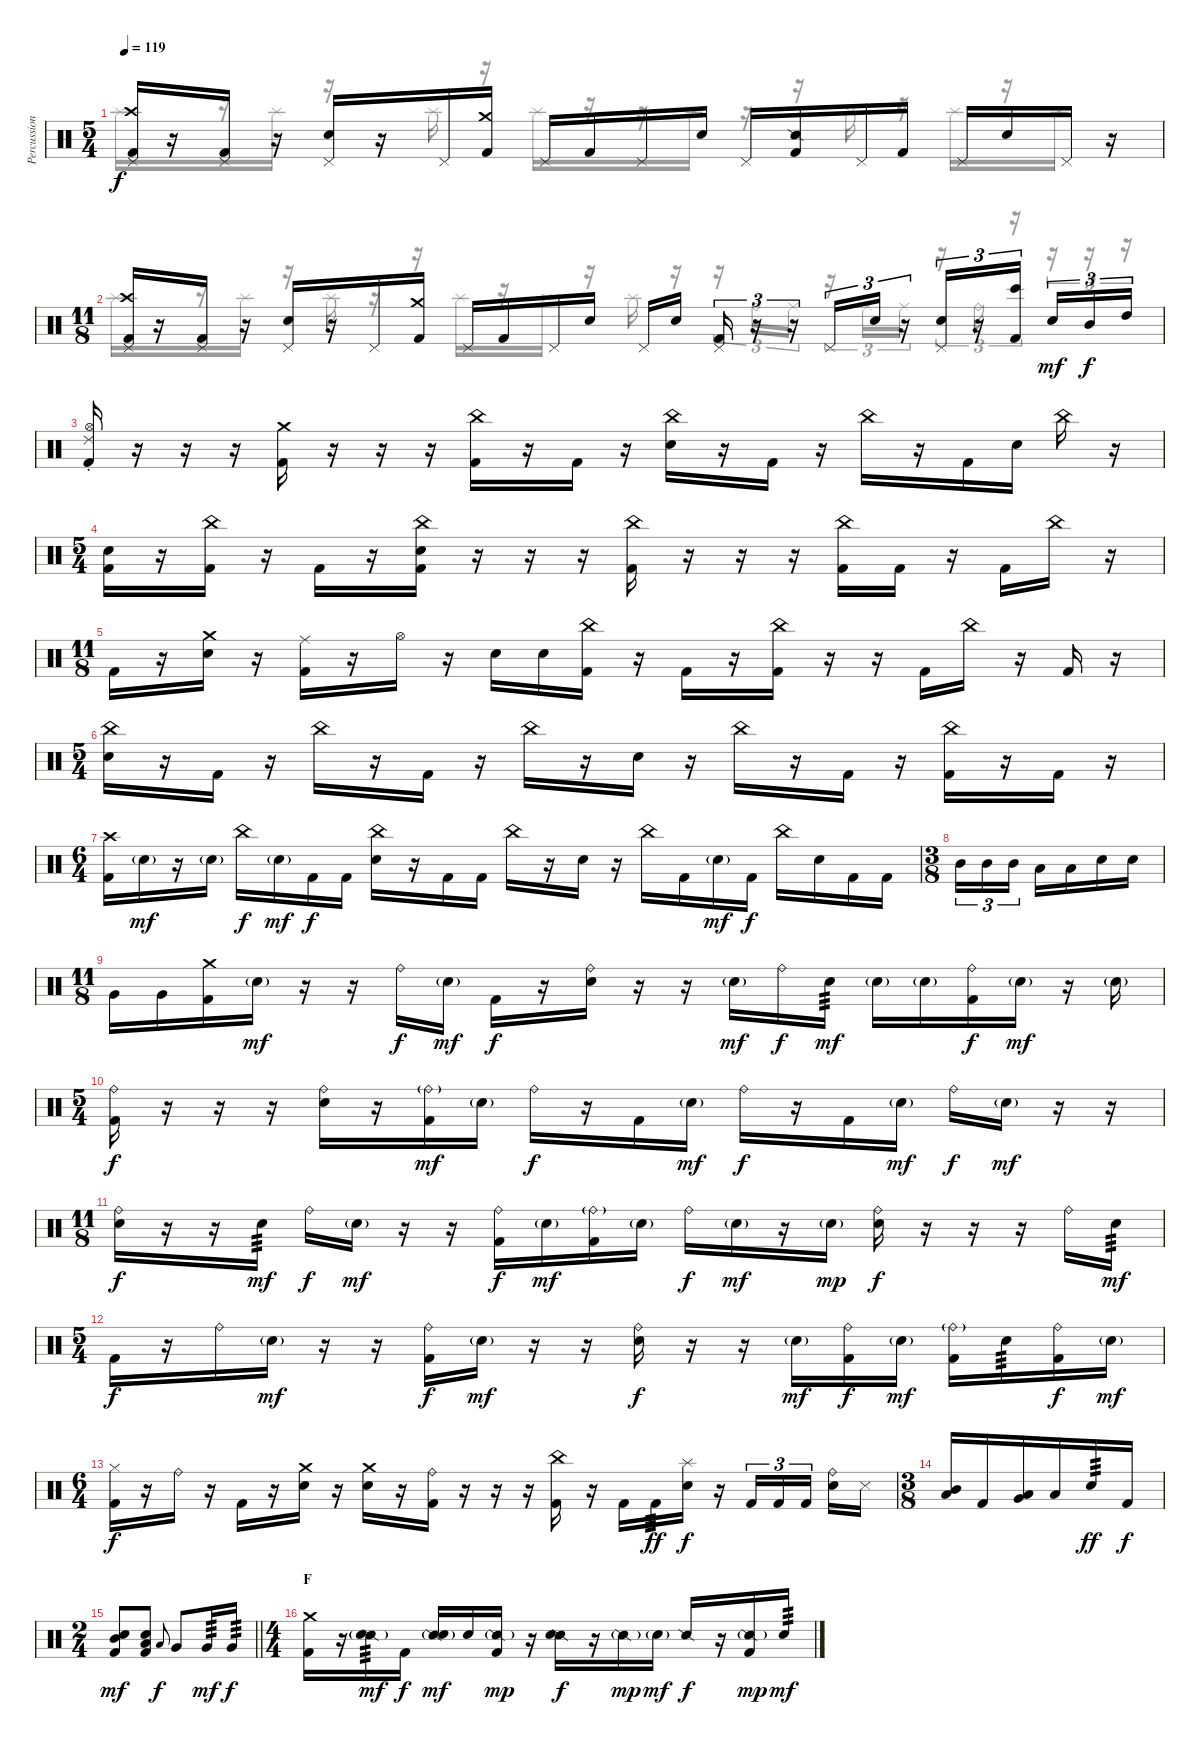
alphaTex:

\track ("Percussion" "Percussion") {instrument percussion}
\staff {score}
\articulation defaults
\voice
\ts (5 4)
\tempo 119
\clef neutral
\ks c
("Crash high (hit)" "Pedal Hi-Hat (hit)" "Kick (hit) 2").16{dy f} r.16 ("Pedal Hi-Hat (hit)" "Kick (hit) 2").16 r.16 ("Pedal Hi-Hat (hit)" "Snare (hit) 2").16 r.16 "Pedal Hi-Hat (hit)".16 ("Crash medium (hit)" "Kick (hit) 2").16 "Pedal Hi-Hat (hit)".16 "Kick (hit) 2".16 "Pedal Hi-Hat (hit)".16 "Snare (hit) 2".16 "Pedal Hi-Hat (hit)".16 ("Snare (side stick) 2" "Kick (hit) 2").16 "Pedal Hi-Hat (hit)".16 "Kick (hit) 2".16 "Pedal Hi-Hat (hit)".16 "Snare (hit) 2".16 "Pedal Hi-Hat (hit)".16 r.16 |
\ts (11 8)
("Crash high (hit)" "Pedal Hi-Hat (hit)" "Kick (hit) 2").16 r.16 ("Pedal Hi-Hat (hit)" "Kick (hit) 2").16 r.16 ("Pedal Hi-Hat (hit)" "Snare (hit) 2").16 r.16 "Pedal Hi-Hat (hit)".16 ("Crash medium (hit)" "Kick (hit) 2").16 "Pedal Hi-Hat (hit)".16 "Kick (hit) 2".16 "Pedal Hi-Hat (hit)".16 "Snare (hit) 2".16 "Pedal Hi-Hat (hit)".16 "Snare (hit)".16 ("Pedal Hi-Hat (hit)" "Kick (hit) 2").16{tu (3 2)} r.16{tu (3 2)} r.16{tu (3 2)} "Pedal Hi-Hat (hit)".16{tu (3 2)} "Snare (hit) 2".16{tu (3 2)} r.16{tu (3 2)} ("Pedal Hi-Hat (hit)" "Snare (hit) 2").16{tu (3 2)} r.16{tu (3 2)} ("Bongo High (hit)" "Kick (hit) 2").16{tu (3 2)} "Snare (hit) 2".16{tu (3 2) dy mf} "Mid Tom (hit)".16{tu (3 2) dy f} "High Tom (hit)".16{tu (3 2)} |
("Hi-Hat (open)" "Ride (choke) 2" "Kick (hit) 2").16 r.16 r.16 r.16 ("Crash medium (hit)" "Kick (hit) 2").16 r.16 r.16 r.16 ("China (hit)" "Kick (hit) 2").16 r.16 "Kick (hit) 2".16 r.16 ("China (hit)" "Snare (hit) 2").16 r.16 "Kick (hit) 2".16 r.16 "China (hit)".16 r.16 "Kick (hit) 2".16 "Snare (hit) 2".16 "China (hit)".16 r.16 |
\ts (5 4)
("Snare (hit) 2" "Kick (hit) 2").16 r.16 ("China (hit)" "Kick (hit) 2").16 r.16 "Kick (hit) 2".16 r.16 ("China (hit)" "Snare (hit) 2" "Kick (hit) 2").16 r.16 r.16 r.16 ("China (hit)" "Kick (hit) 2").16 r.16 r.16 r.16 ("China (hit)" "Kick (hit) 2").16 "Kick (hit) 2".16 r.16 "Kick (hit) 2".16 "China (hit)".16 r.16 |
\ts (11 8)
"Kick (hit) 2".16 r.16 ("Crash medium (hit)" "Snare (hit) 2").16 r.16 ("Ride (middle)" "Kick (hit) 2").16 r.16 "Hi-Hat (open)".16 r.16 "Snare (hit) 2".16 "Snare (hit) 2".16 ("China (hit)" "Kick (hit) 2").16 r.16 "Kick (hit) 2".16 r.16 ("China (hit)" "Kick (hit) 2").16 r.16 r.16 "Kick (hit) 2".16 "China (hit)".16 r.16 "Kick (hit) 2".16 r.16 |
\ts (5 4)
("China (hit)" "Snare (hit) 2").16 r.16 "Kick (hit) 2".16 r.16 "China (hit)".16 r.16 "Kick (hit) 2".16 r.16 "China (hit)".16 r.16 "Snare (hit) 2".16 r.16 "China (hit)".16 r.16 "Kick (hit) 2".16 r.16 ("China (hit)" "Kick (hit) 2").16 r.16 "Kick (hit) 2".16 r.16 |
\ts (6 4)
("Crash high (hit)" "Kick (hit) 2").16 "Snare (hit) 2"{g}.16{dy mf} r.16 "Snare (hit) 2"{g}.16 "China (hit)".16{dy f} "Snare (hit) 2"{g}.16{dy mf} "Kick (hit) 2".16{dy f} "Kick (hit) 2".16 ("China (hit)" "Snare (hit) 2").16 r.16 "Kick (hit) 2".16 "Kick (hit) 2".16 "China (hit)".16 r.16 "Snare (hit) 2".16 r.16 "China (hit)".16 "Kick (hit) 2".16 "Snare (hit) 2"{g}.16{dy mf} "Kick (hit) 2".16{dy f} "China (hit)".16 "Snare (hit) 2".16 "Kick (hit) 2".16 "Kick (hit) 2".16 |
\ts (3 8)
"Mid Tom (hit)".16{tu (3 2)} "Mid Tom (hit)".16{tu (3 2)} "Mid Tom (hit)".16{tu (3 2)} "Low Tom (hit)".16 "Low Tom (hit)".16 "Snare (hit) 2".16 "Snare (hit) 2".16 |
\ts (11 8)
"Very Low Tom (hit)".16 "Very Low Tom (hit)".16 ("Crash medium (hit)" "Kick (hit) 2").16 "Snare (hit) 2"{g}.16{dy mf} r.16 r.16 "Ride (bell)".16{dy f} "Snare (hit) 2"{g}.16{dy mf} "Kick (hit) 2".16{dy f} r.16 ("Ride (bell)" "Snare (hit) 2").16 r.16 r.16 "Snare (hit) 2"{g}.16{dy mf} "Ride (bell)".16{dy f} "Snare (hit) 2".16{tp 3 dy mf} "Snare (hit) 2"{g}.16 "Snare (hit) 2"{g}.16 ("Ride (bell)" "Kick (hit) 2").16{dy f} "Snare (hit) 2"{g}.16{dy mf} r.16 "Snare (hit) 2"{g}.16 |
\ts (5 4)
("Ride (bell)" "Kick (hit) 2").16{dy f} r.16 r.16 r.16 ("Ride (bell)" "Snare (hit) 2").16 r.16 ("Ride (bell)"{g} "Kick (hit) 2").16{dy mf} "Snare (hit) 2"{g}.16 "Ride (bell)".16{dy f} r.16 "Kick (hit) 2".16 "Snare (hit) 2"{g}.16{dy mf} "Ride (bell)".16{dy f} r.16 "Kick (hit) 2".16 "Snare (hit) 2"{g}.16{dy mf} "Ride (bell)".16{dy f} "Snare (hit) 2"{g}.16{dy mf} r.16 r.16 |
\ts (11 8)
("Ride (bell)" "Snare (hit) 2").16{dy f} r.16 r.16 "Snare (hit) 2".16{tp 3 dy mf} "Ride (bell)".16{dy f} "Snare (hit) 2"{g}.16{dy mf} r.16 r.16 ("Ride (bell)" "Kick (hit) 2").16{dy f} "Snare (hit) 2"{g}.16{dy mf} ("Ride (bell)"{g} "Kick (hit) 2").16 "Snare (hit) 2"{g}.16 "Ride (bell)".16{dy f} "Snare (hit) 2"{g}.16{dy mf} r.16 "Snare (hit) 2"{g}.16{dy mp} ("Ride (bell)" "Snare (hit) 2").16{dy f} r.16 r.16 r.16 "Ride (bell)".16 "Snare (hit) 2".16{tp 3 dy mf} |
\ts (5 4)
"Kick (hit) 2".16{dy f} r.16 "Ride (bell)".16 "Snare (hit) 2"{g}.16{dy mf} r.16 r.16 ("Ride (bell)" "Kick (hit) 2").16{dy f} "Snare (hit) 2"{g}.16{dy mf} r.16 r.16 ("Ride (bell)" "Snare (hit) 2").16{dy f} r.16 r.16 "Snare (hit) 2"{g}.16{dy mf} ("Ride (bell)" "Kick (hit) 2").16{dy f} "Snare (hit) 2"{g}.16{dy mf} ("Ride (bell)"{g} "Kick (hit) 2").16 "Snare (hit) 2".16{tp 3} ("Ride (bell)" "Kick (hit) 2").16{dy f} "Snare (hit) 2"{g}.16{dy mf} |
\ts (6 4)
("Hi-Hat (closed)" "Kick (hit) 2").16{dy f} r.16 "Ride (bell)".16 r.16 "Kick (hit) 2".16 r.16 ("Crash medium (hit)" "Snare (hit) 2").16 r.16 ("Crash medium (hit)" "Snare (hit) 2").16 r.16 ("Ride (bell)" "Kick (hit) 2").16 r.16 r.16 r.16 ("China (hit)" "Kick (hit) 2").16 r.16 "Kick (hit) 2".16 "Kick (hit) 2".16{tp 3 dy ff} ("Splash (hit)" "Snare (hit) 2").16{dy f} r.16 "Kick (hit) 2".16{tu (3 2)} "Kick (hit) 2".16{tu (3 2)} "Kick (hit) 2".16{tu (3 2) beam splitsecondary} ("Ride (bell)" "Snare (hit) 2").16 "Metronome (hit)".16 |
\ts (3 8)
("Mid Tom (hit)" "Low Tom (hit)").16{bu 60} "Kick (hit) 2".16 ("Low Tom (hit)" "Very Low Tom (hit)").16{bu 60} "Low Tom (hit)".16 "Snare (hit) 2".16{tp 3 dy ff} "Kick (hit) 2".16{dy f} |
\ts (2 4)
\barLineRight lightlight
("Mid Tom (hit)" "Snare (hit) 2" "Kick (hit) 2").8{dy mf} ("Snare (hit) 2" "Low Floor Tom (hit)" "Kick (hit) 2").8 "Low Tom (hit)".8{gr onbeat dy f} "Very Low Tom (hit)".8 "Very Low Tom (hit)".16{tp 3 dy mf} "Very Low Tom (hit)".16{tp 3 dy f} |
\ts (4 4)
\section ("" "F")
("Crash medium (hit)" "Kick (hit) 2").16 r.16 ("Snare (side stick) 2"{g} "Snare (hit) 2").16{tp 3 dy mf} "Kick (hit) 2".16{dy f} ("Snare (side stick) 2" "Snare (hit) 2"{g}).16{dy mf} "Snare (hit) 2".16 ("Snare (side stick) 2"{g} "Kick (hit) 2").16{dy mp} r.16 ("Snare (side stick) 2" "Snare (hit) 2").16{dy f} r.16 "Snare (side stick) 2"{g}.16{dy mp} "Snare (hit) 2"{g}.16{dy mf} "Snare (side stick) 2".16{dy f} r.16 ("Snare (side stick) 2"{g} "Kick (hit) 2").16{dy mp} "Snare (hit) 2".16{tp 3 dy mf}
\voice
\clef neutral
\ottava regular
\simile none
\ks c "Splash (hit)".16{dy f}
r.16 r.16 "Splash (hit)".16 r.16 r.16 "Splash (hit)".16 r.16 "Splash (hit)".16 r.16 r.16 "Splash (hit)".16 r.16 r.16 "Splash (hit)".16 r.16 "Splash (hit)".16 r.16 "Splash (hit)".16 r.16 |
"Splash (hit)".16 r.16 r.16 "Splash (hit)".16 r.16 "Splash (hit)".16 r.16 r.16 "Splash (hit)".16 r.16 "Splash (hit)".16 r.16 "Splash (hit)".16 r.16 r.16{tu (3 2)} "Ride (bell)".16{tu (3 2)} "Ride (middle)".16{tu (3 2)} r.16{tu (3 2)} "Ride (middle)".16{tu (3 2)} "Ride (middle)".16{tu (3 2)} r.16{tu (3 2)} "Ride (bell)".16{tu (3 2)} r.16{tu (3 2)} r.16{tu (3 2)} r.16{tu (3 2)} r.16{tu (3 2)} |
|
|
|
|
|
|
|
|
|
|
|
|
\barLineRight lightlight
|
